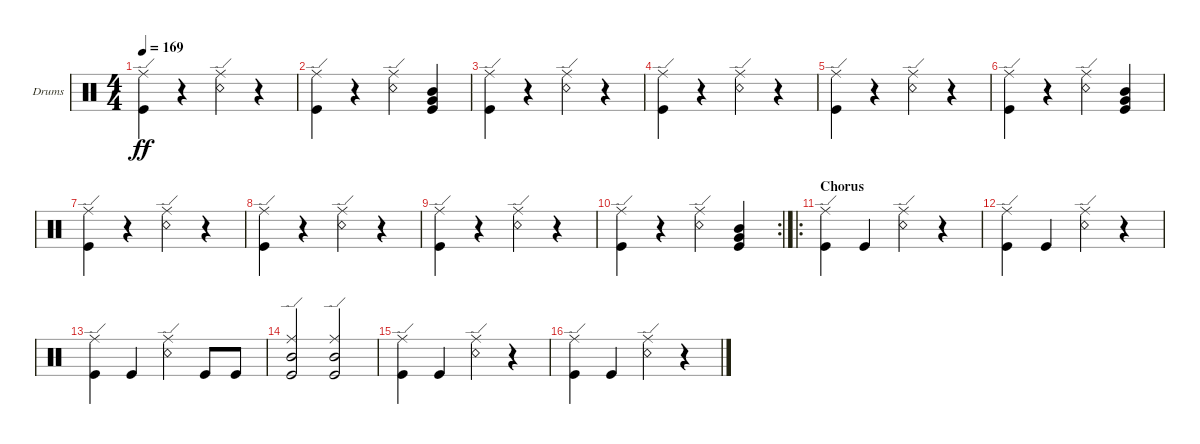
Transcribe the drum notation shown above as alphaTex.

\bracketExtendMode groupsimilarinstruments
\firstSystemTrackNameOrientation horizontal
\otherSystemsTrackNameOrientation horizontal
\track ("Drumkit" "Drums") {instrument percussion}
\staff {score}
\articulation defaults
\ts (4 4)
\tempo 169
\clef neutral
\ks c
("Kick (hit)" "Ride (edge)").4{dy ff} r.4 ("Snare (rim shot)" "Ride (edge)").4 r.4 |
("Kick (hit)" "Ride (edge)").4 r.4 ("Snare (rim shot)" "Ride (edge)").4 ("Mid Tom (hit)" "Very Low Tom (hit)" "Kick (hit)").4 |
("Kick (hit)" "Ride (edge)").4 r.4 ("Snare (rim shot)" "Ride (edge)").4 r.4 |
("Kick (hit)" "Ride (edge)").4 r.4 ("Snare (rim shot)" "Ride (edge)").4 r.4 |
("Kick (hit)" "Ride (edge)").4 r.4 ("Snare (rim shot)" "Ride (edge)").4 r.4 |
("Kick (hit)" "Ride (edge)").4 r.4 ("Snare (rim shot)" "Ride (edge)").4 ("Mid Tom (hit)" "Very Low Tom (hit)" "Kick (hit)").4 |
("Kick (hit)" "Ride (edge)").4 r.4 ("Snare (rim shot)" "Ride (edge)").4 r.4 |
("Kick (hit)" "Ride (edge)").4 r.4 ("Snare (rim shot)" "Ride (edge)").4 r.4 |
("Kick (hit)" "Ride (edge)").4 r.4 ("Snare (rim shot)" "Ride (edge)").4 r.4 |
\rc 2
("Kick (hit)" "Ride (edge)").4 r.4 ("Snare (rim shot)" "Ride (edge)").4 ("Mid Tom (hit)" "Very Low Tom (hit)" "Kick (hit)").4 |
\ro
\section ("" "Chorus")
("Kick (hit)" "Ride (edge)").4 "Kick (hit)".4 ("Snare (rim shot)" "Ride (edge)").4 r.4 |
("Kick (hit)" "Ride (edge)").4 "Kick (hit)".4 ("Snare (rim shot)" "Ride (edge)").4 r.4 |
("Kick (hit)" "Ride (edge)").4 "Kick (hit)".4 ("Snare (rim shot)" "Ride (edge)").4 "Kick (hit)".8 "Kick (hit)".8 |
("Kick (hit)" "Mid Tom (hit)" "Ride (edge)").2 ("Kick (hit)" "Mid Tom (hit)" "Ride (edge)").2 |
("Kick (hit)" "Ride (edge)").4 "Kick (hit)".4 ("Snare (rim shot)" "Ride (edge)").4 r.4 |
("Kick (hit)" "Ride (edge)").4 "Kick (hit)".4 ("Snare (rim shot)" "Ride (edge)").4 r.4
